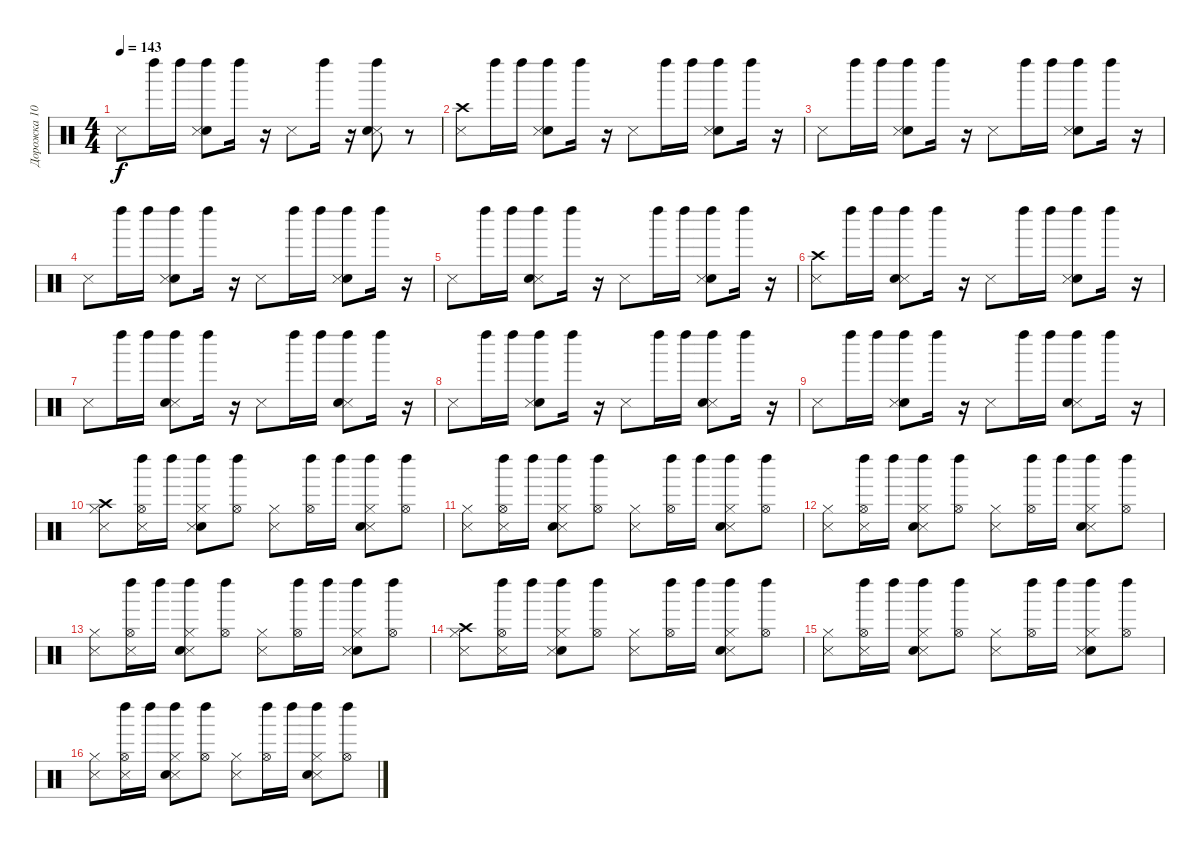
\track ("Дорожка 10" "Дорожка 10") {instrument percussion}
\staff {score}
\articulation defaults
\ts (4 4)
\tempo 143
\clef neutral
\ks c "Metronome (hit)".8{dy f} "Left Maraca (hit)".16 "Left Maraca (hit)".16
("Electric Snare (hit)" "Metronome (hit)" "Left Maraca (hit)").8 "Left Maraca (hit)".16 r.16 "Metronome (hit)".8 "Left Maraca (hit)".16 r.16 ("Metronome (hit)" "Electric Snare (hit)" "Left Maraca (hit)").8 r.8 |
("Metronome (hit)" "Crash high (hit)").8 "Left Maraca (hit)".16 "Left Maraca (hit)".16 ("Electric Snare (hit)" "Metronome (hit)" "Left Maraca (hit)").8 "Left Maraca (hit)".16 r.16 "Metronome (hit)".8 "Left Maraca (hit)".16 "Left Maraca (hit)".16 ("Electric Snare (hit)" "Metronome (hit)" "Left Maraca (hit)").8 "Left Maraca (hit)".16 r.16 |
"Metronome (hit)".8 "Left Maraca (hit)".16 "Left Maraca (hit)".16 ("Electric Snare (hit)" "Metronome (hit)" "Left Maraca (hit)").8 "Left Maraca (hit)".16 r.16 "Metronome (hit)".8 "Left Maraca (hit)".16 "Left Maraca (hit)".16 ("Electric Snare (hit)" "Metronome (hit)" "Left Maraca (hit)").8 "Left Maraca (hit)".16 r.16 |
"Metronome (hit)".8 "Left Maraca (hit)".16 "Left Maraca (hit)".16 ("Electric Snare (hit)" "Metronome (hit)" "Left Maraca (hit)").8 "Left Maraca (hit)".16 r.16 "Metronome (hit)".8 "Left Maraca (hit)".16 "Left Maraca (hit)".16 ("Electric Snare (hit)" "Metronome (hit)" "Left Maraca (hit)").8 "Left Maraca (hit)".16 r.16 |
"Metronome (hit)".8 "Left Maraca (hit)".16 "Left Maraca (hit)".16 ("Metronome (hit)" "Electric Snare (hit)" "Left Maraca (hit)").8 "Left Maraca (hit)".16 r.16 "Metronome (hit)".8 "Left Maraca (hit)".16 "Left Maraca (hit)".16 ("Electric Snare (hit)" "Metronome (hit)" "Left Maraca (hit)").8 "Left Maraca (hit)".16 r.16 |
("Metronome (hit)" "Crash high (hit)").8 "Left Maraca (hit)".16 "Left Maraca (hit)".16 ("Metronome (hit)" "Electric Snare (hit)" "Left Maraca (hit)").8 "Left Maraca (hit)".16 r.16 "Metronome (hit)".8 "Left Maraca (hit)".16 "Left Maraca (hit)".16 ("Electric Snare (hit)" "Metronome (hit)" "Left Maraca (hit)").8 "Left Maraca (hit)".16 r.16 |
"Metronome (hit)".8 "Left Maraca (hit)".16 "Left Maraca (hit)".16 ("Metronome (hit)" "Electric Snare (hit)" "Left Maraca (hit)").8 "Left Maraca (hit)".16 r.16 "Metronome (hit)".8 "Left Maraca (hit)".16 "Left Maraca (hit)".16 ("Metronome (hit)" "Electric Snare (hit)" "Left Maraca (hit)").8 "Left Maraca (hit)".16 r.16 |
"Metronome (hit)".8 "Left Maraca (hit)".16 "Left Maraca (hit)".16 ("Electric Snare (hit)" "Metronome (hit)" "Left Maraca (hit)").8 "Left Maraca (hit)".16 r.16 "Metronome (hit)".8 "Left Maraca (hit)".16 "Left Maraca (hit)".16 ("Metronome (hit)" "Electric Snare (hit)" "Left Maraca (hit)").8 "Left Maraca (hit)".16 r.16 |
"Metronome (hit)".8 "Left Maraca (hit)".16 "Left Maraca (hit)".16 ("Electric Snare (hit)" "Metronome (hit)" "Left Maraca (hit)").8 "Left Maraca (hit)".16 r.16 "Metronome (hit)".8 "Left Maraca (hit)".16 "Left Maraca (hit)".16 ("Metronome (hit)" "Electric Snare (hit)" "Left Maraca (hit)").8 "Left Maraca (hit)".16 r.16 |
("Metronome (hit)" "Crash high (hit)" "Hi-Hat (closed)").8 ("Metronome (hit)" "Hi-Hat (open)" "Left Maraca (hit)").16 "Left Maraca (hit)".16 ("Electric Snare (hit)" "Metronome (hit)" "Hi-Hat (closed)" "Left Maraca (hit)").8 ("Hi-Hat (open)" "Left Maraca (hit)").8 ("Metronome (hit)" "Hi-Hat (closed)").8 ("Hi-Hat (open)" "Left Maraca (hit)").16 "Left Maraca (hit)".16 ("Metronome (hit)" "Electric Snare (hit)" "Hi-Hat (closed)" "Left Maraca (hit)").8 ("Hi-Hat (open)" "Left Maraca (hit)").8 |
("Metronome (hit)" "Hi-Hat (closed)").8 ("Metronome (hit)" "Hi-Hat (open)" "Left Maraca (hit)").16 "Left Maraca (hit)".16 ("Metronome (hit)" "Electric Snare (hit)" "Hi-Hat (closed)" "Left Maraca (hit)").8 ("Hi-Hat (open)" "Left Maraca (hit)").8 ("Metronome (hit)" "Hi-Hat (closed)").8 ("Hi-Hat (open)" "Left Maraca (hit)").16 "Left Maraca (hit)".16 ("Metronome (hit)" "Electric Snare (hit)" "Hi-Hat (closed)" "Left Maraca (hit)").8 ("Hi-Hat (open)" "Left Maraca (hit)").8 |
("Metronome (hit)" "Hi-Hat (closed)").8 ("Metronome (hit)" "Hi-Hat (open)" "Left Maraca (hit)").16 "Left Maraca (hit)".16 ("Metronome (hit)" "Electric Snare (hit)" "Hi-Hat (closed)" "Left Maraca (hit)").8 ("Hi-Hat (open)" "Left Maraca (hit)").8 ("Metronome (hit)" "Hi-Hat (closed)").8 ("Hi-Hat (open)" "Left Maraca (hit)").16 "Left Maraca (hit)".16 ("Metronome (hit)" "Electric Snare (hit)" "Hi-Hat (closed)" "Left Maraca (hit)").8 ("Hi-Hat (open)" "Left Maraca (hit)").8 |
("Metronome (hit)" "Hi-Hat (closed)").8 ("Metronome (hit)" "Hi-Hat (open)" "Left Maraca (hit)").16 "Left Maraca (hit)".16 ("Metronome (hit)" "Electric Snare (hit)" "Hi-Hat (closed)" "Left Maraca (hit)").8 ("Hi-Hat (open)" "Left Maraca (hit)").8 ("Metronome (hit)" "Hi-Hat (closed)").8 ("Hi-Hat (open)" "Left Maraca (hit)").16 "Left Maraca (hit)".16 ("Electric Snare (hit)" "Metronome (hit)" "Hi-Hat (closed)" "Left Maraca (hit)").8 ("Hi-Hat (open)" "Left Maraca (hit)").8 |
("Metronome (hit)" "Crash high (hit)" "Hi-Hat (closed)").8 ("Metronome (hit)" "Hi-Hat (open)" "Left Maraca (hit)").16 "Left Maraca (hit)".16 ("Electric Snare (hit)" "Metronome (hit)" "Hi-Hat (closed)" "Left Maraca (hit)").8 ("Hi-Hat (open)" "Left Maraca (hit)").8 ("Metronome (hit)" "Hi-Hat (closed)").8 ("Hi-Hat (open)" "Left Maraca (hit)").16 "Left Maraca (hit)".16 ("Metronome (hit)" "Electric Snare (hit)" "Hi-Hat (closed)" "Left Maraca (hit)").8 ("Hi-Hat (open)" "Left Maraca (hit)").8 |
("Metronome (hit)" "Hi-Hat (closed)").8 ("Metronome (hit)" "Hi-Hat (open)" "Left Maraca (hit)").16 "Left Maraca (hit)".16 ("Metronome (hit)" "Electric Snare (hit)" "Hi-Hat (closed)" "Left Maraca (hit)").8 ("Hi-Hat (open)" "Left Maraca (hit)").8 ("Metronome (hit)" "Hi-Hat (closed)").8 ("Hi-Hat (open)" "Left Maraca (hit)").16 "Left Maraca (hit)".16 ("Electric Snare (hit)" "Metronome (hit)" "Hi-Hat (closed)" "Left Maraca (hit)").8 ("Hi-Hat (open)" "Left Maraca (hit)").8 |
("Metronome (hit)" "Hi-Hat (closed)").8 ("Metronome (hit)" "Hi-Hat (open)" "Left Maraca (hit)").16 "Left Maraca (hit)".16 ("Metronome (hit)" "Electric Snare (hit)" "Hi-Hat (closed)" "Left Maraca (hit)").8 ("Hi-Hat (open)" "Left Maraca (hit)").8 ("Metronome (hit)" "Hi-Hat (closed)").8 ("Hi-Hat (open)" "Left Maraca (hit)").16 "Left Maraca (hit)".16 ("Metronome (hit)" "Electric Snare (hit)" "Hi-Hat (closed)" "Left Maraca (hit)").8 ("Hi-Hat (open)" "Left Maraca (hit)").8
